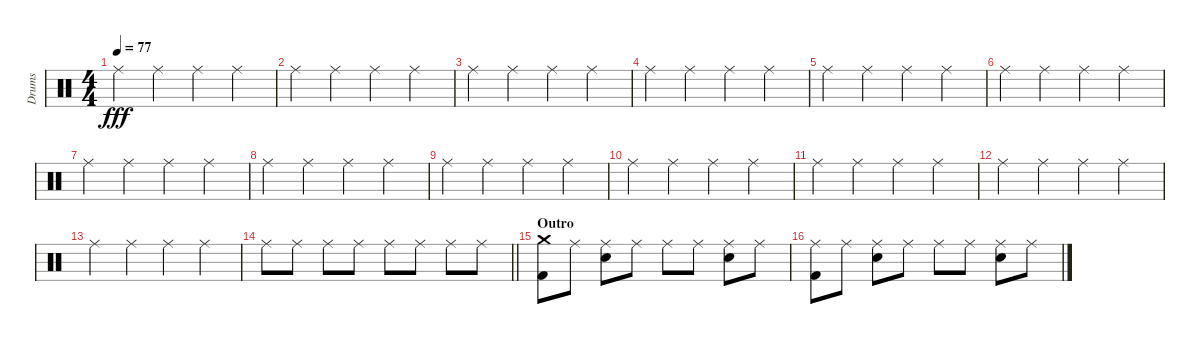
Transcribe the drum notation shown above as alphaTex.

\track ("Drums" "Drums") {instrument percussion}
\staff {score}
\articulation defaults
\ts (4 4)
\tempo 77
\clef neutral
\ks c "Ride (middle)".4{dy fff} "Ride (middle)".4 "Ride (middle)".4 "Ride (middle)".4
|
"Ride (middle)".4 "Ride (middle)".4 "Ride (middle)".4 "Ride (middle)".4 |
"Ride (middle)".4 "Ride (middle)".4 "Ride (middle)".4 "Ride (middle)".4 |
"Ride (middle)".4 "Ride (middle)".4 "Ride (middle)".4 "Ride (middle)".4 |
"Ride (middle)".4 "Ride (middle)".4 "Ride (middle)".4 "Ride (middle)".4 |
"Ride (middle)".4 "Ride (middle)".4 "Ride (middle)".4 "Ride (middle)".4 |
"Ride (middle)".4 "Ride (middle)".4 "Ride (middle)".4 "Ride (middle)".4 |
"Ride (middle)".4 "Ride (middle)".4 "Ride (middle)".4 "Ride (middle)".4 |
"Ride (middle)".4 "Ride (middle)".4 "Ride (middle)".4 "Ride (middle)".4 |
"Ride (middle)".4 "Ride (middle)".4 "Ride (middle)".4 "Ride (middle)".4 |
"Ride (middle)".4 "Ride (middle)".4 "Ride (middle)".4 "Ride (middle)".4 |
"Ride (middle)".4 "Ride (middle)".4 "Ride (middle)".4 "Ride (middle)".4 |
"Ride (middle)".4 "Ride (middle)".4 "Ride (middle)".4 "Ride (middle)".4 |
\barLineRight lightlight "Ride (middle)".8 "Ride (middle)".8 "Ride (middle)".8 "Ride (middle)".8 "Ride (middle)".8 "Ride (middle)".8 "Ride (middle)".8 "Ride (middle)".8
|
\section ("" "Outro")
("Crash medium (hit)" "Kick (hit) 2").8 "Ride (middle)".8 ("Ride (middle)" "Snare (hit) 2").8 "Ride (middle)".8 "Ride (middle)".8 "Ride (middle)".8 ("Ride (middle)" "Snare (hit) 2").8 "Ride (middle)".8 |
("Ride (middle)" "Kick (hit) 2").8 "Ride (middle)".8 ("Ride (middle)" "Snare (hit) 2").8 "Ride (middle)".8 "Ride (middle)".8 "Ride (middle)".8 ("Ride (middle)" "Snare (hit) 2").8 "Ride (middle)".8
